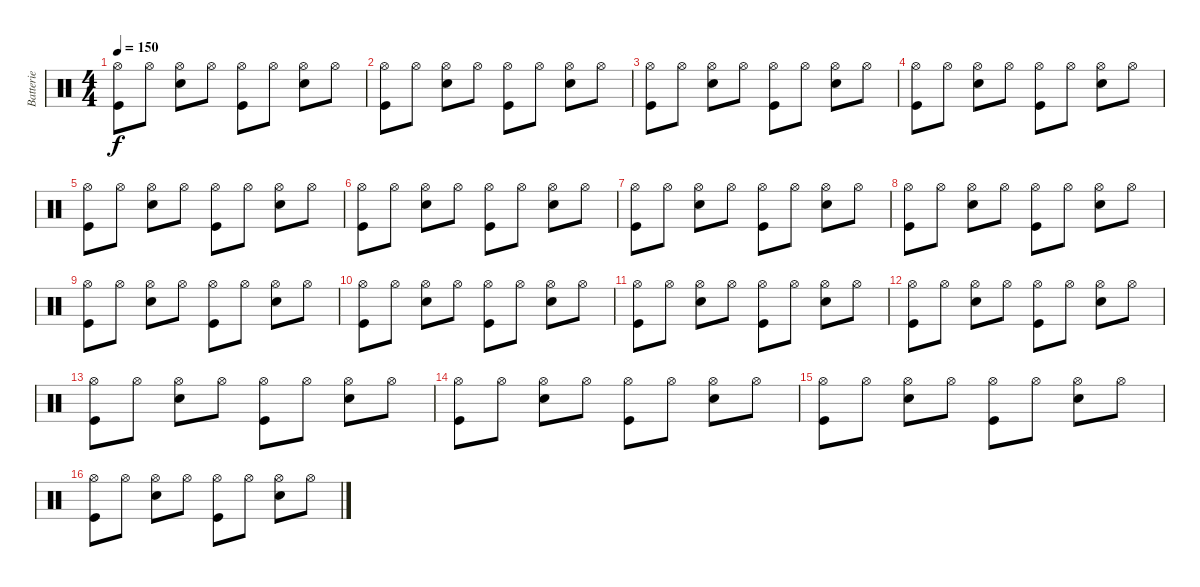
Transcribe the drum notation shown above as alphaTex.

\track ("Batterie" "Batterie") {instrument percussion}
\staff {score}
\articulation defaults
\ts (4 4)
\tempo 150
\clef neutral
\ks c
("Hi-Hat (open)" "Kick (hit)").8{dy f} "Hi-Hat (open)".8 ("Hi-Hat (open)" "Snare (hit) 2").8 "Hi-Hat (open)".8 ("Hi-Hat (open)" "Kick (hit)").8 "Hi-Hat (open)".8 ("Hi-Hat (open)" "Snare (hit) 2").8 "Hi-Hat (open)".8 |
("Hi-Hat (open)" "Kick (hit)").8 "Hi-Hat (open)".8 ("Hi-Hat (open)" "Snare (hit) 2").8 "Hi-Hat (open)".8 ("Hi-Hat (open)" "Kick (hit)").8 "Hi-Hat (open)".8 ("Hi-Hat (open)" "Snare (hit) 2").8 "Hi-Hat (open)".8 |
("Hi-Hat (open)" "Kick (hit)").8 "Hi-Hat (open)".8 ("Hi-Hat (open)" "Snare (hit) 2").8 "Hi-Hat (open)".8 ("Hi-Hat (open)" "Kick (hit)").8 "Hi-Hat (open)".8 ("Hi-Hat (open)" "Snare (hit) 2").8 "Hi-Hat (open)".8 |
("Hi-Hat (open)" "Kick (hit)").8 "Hi-Hat (open)".8 ("Hi-Hat (open)" "Snare (hit) 2").8 "Hi-Hat (open)".8 ("Hi-Hat (open)" "Kick (hit)").8 "Hi-Hat (open)".8 ("Hi-Hat (open)" "Snare (hit) 2").8 "Hi-Hat (open)".8 |
("Hi-Hat (open)" "Kick (hit)").8 "Hi-Hat (open)".8 ("Hi-Hat (open)" "Snare (hit) 2").8 "Hi-Hat (open)".8 ("Hi-Hat (open)" "Kick (hit)").8 "Hi-Hat (open)".8 ("Hi-Hat (open)" "Snare (hit) 2").8 "Hi-Hat (open)".8 |
("Hi-Hat (open)" "Kick (hit)").8 "Hi-Hat (open)".8 ("Hi-Hat (open)" "Snare (hit) 2").8 "Hi-Hat (open)".8 ("Hi-Hat (open)" "Kick (hit)").8 "Hi-Hat (open)".8 ("Hi-Hat (open)" "Snare (hit) 2").8 "Hi-Hat (open)".8 |
("Hi-Hat (open)" "Kick (hit)").8 "Hi-Hat (open)".8 ("Hi-Hat (open)" "Snare (hit) 2").8 "Hi-Hat (open)".8 ("Hi-Hat (open)" "Kick (hit)").8 "Hi-Hat (open)".8 ("Hi-Hat (open)" "Snare (hit) 2").8 "Hi-Hat (open)".8 |
("Hi-Hat (open)" "Kick (hit)").8 "Hi-Hat (open)".8 ("Hi-Hat (open)" "Snare (hit) 2").8 "Hi-Hat (open)".8 ("Hi-Hat (open)" "Kick (hit)").8 "Hi-Hat (open)".8 ("Hi-Hat (open)" "Snare (hit) 2").8 "Hi-Hat (open)".8 |
("Hi-Hat (open)" "Kick (hit)").8 "Hi-Hat (open)".8 ("Hi-Hat (open)" "Snare (hit) 2").8 "Hi-Hat (open)".8 ("Hi-Hat (open)" "Kick (hit)").8 "Hi-Hat (open)".8 ("Hi-Hat (open)" "Snare (hit) 2").8 "Hi-Hat (open)".8 |
("Hi-Hat (open)" "Kick (hit)").8 "Hi-Hat (open)".8 ("Hi-Hat (open)" "Snare (hit) 2").8 "Hi-Hat (open)".8 ("Hi-Hat (open)" "Kick (hit)").8 "Hi-Hat (open)".8 ("Hi-Hat (open)" "Snare (hit) 2").8 "Hi-Hat (open)".8 |
("Hi-Hat (open)" "Kick (hit)").8 "Hi-Hat (open)".8 ("Hi-Hat (open)" "Snare (hit) 2").8 "Hi-Hat (open)".8 ("Hi-Hat (open)" "Kick (hit)").8 "Hi-Hat (open)".8 ("Hi-Hat (open)" "Snare (hit) 2").8 "Hi-Hat (open)".8 |
("Hi-Hat (open)" "Kick (hit)").8 "Hi-Hat (open)".8 ("Hi-Hat (open)" "Snare (hit) 2").8 "Hi-Hat (open)".8 ("Hi-Hat (open)" "Kick (hit)").8 "Hi-Hat (open)".8 ("Hi-Hat (open)" "Snare (hit) 2").8 "Hi-Hat (open)".8 |
("Hi-Hat (open)" "Kick (hit)").8 "Hi-Hat (open)".8 ("Hi-Hat (open)" "Snare (hit) 2").8 "Hi-Hat (open)".8 ("Hi-Hat (open)" "Kick (hit)").8 "Hi-Hat (open)".8 ("Hi-Hat (open)" "Snare (hit) 2").8 "Hi-Hat (open)".8 |
("Hi-Hat (open)" "Kick (hit)").8 "Hi-Hat (open)".8 ("Hi-Hat (open)" "Snare (hit) 2").8 "Hi-Hat (open)".8 ("Hi-Hat (open)" "Kick (hit)").8 "Hi-Hat (open)".8 ("Hi-Hat (open)" "Snare (hit) 2").8 "Hi-Hat (open)".8 |
("Hi-Hat (open)" "Kick (hit)").8 "Hi-Hat (open)".8 ("Hi-Hat (open)" "Snare (hit) 2").8 "Hi-Hat (open)".8 ("Hi-Hat (open)" "Kick (hit)").8 "Hi-Hat (open)".8 ("Hi-Hat (open)" "Snare (hit) 2").8 "Hi-Hat (open)".8 |
("Hi-Hat (open)" "Kick (hit)").8 "Hi-Hat (open)".8 ("Hi-Hat (open)" "Snare (hit) 2").8 "Hi-Hat (open)".8 ("Hi-Hat (open)" "Kick (hit)").8 "Hi-Hat (open)".8 ("Hi-Hat (open)" "Snare (hit) 2").8 "Hi-Hat (open)".8
